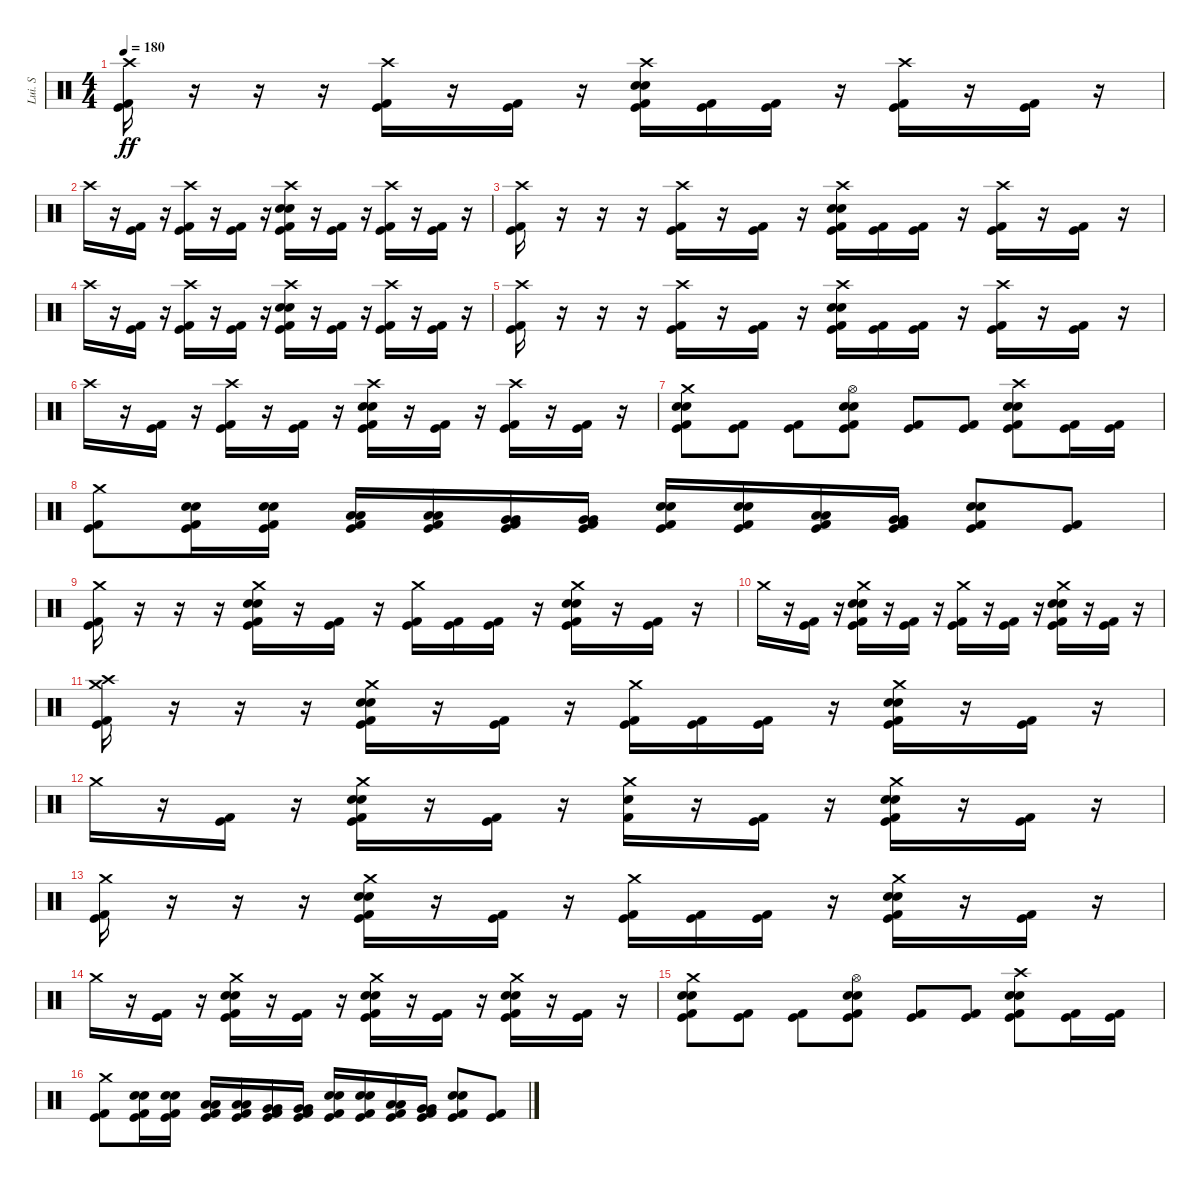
\track ("Lui. S" "Lui. S") {instrument percussion}
\staff {score}
\articulation defaults
\ts (4 4)
\tempo 180
\clef neutral
\ks c
("Crash high (hit)" "Kick (hit)" "Kick (hit) 2").16{dy ff} r.16 r.16 r.16 ("Crash high (hit)" "Kick (hit)" "Kick (hit) 2").16 r.16 ("Kick (hit)" "Kick (hit) 2").16 r.16 ("Crash high (hit)" "Electric Snare (hit)" "Snare (hit) 2" "Kick (hit)" "Kick (hit) 2").16 ("Kick (hit)" "Kick (hit) 2").16 ("Kick (hit)" "Kick (hit) 2").16 r.16 ("Crash high (hit)" "Kick (hit)" "Kick (hit) 2").16 r.16 ("Kick (hit)" "Kick (hit) 2").16 r.16 |
"Crash high (hit)".16 r.16 ("Kick (hit)" "Kick (hit) 2").16 r.16 ("Crash high (hit)" "Kick (hit)" "Kick (hit) 2").16 r.16 ("Kick (hit)" "Kick (hit) 2").16 r.16 ("Crash high (hit)" "Electric Snare (hit)" "Kick (hit)" "Snare (hit) 2" "Kick (hit) 2").16 r.16 ("Kick (hit)" "Kick (hit) 2").16 r.16 ("Crash high (hit)" "Kick (hit)" "Kick (hit) 2").16 r.16 ("Kick (hit)" "Kick (hit) 2").16 r.16 |
("Crash high (hit)" "Kick (hit)" "Kick (hit) 2").16 r.16 r.16 r.16 ("Crash high (hit)" "Kick (hit)" "Kick (hit) 2").16 r.16 ("Kick (hit)" "Kick (hit) 2").16 r.16 ("Crash high (hit)" "Electric Snare (hit)" "Snare (hit) 2" "Kick (hit)" "Kick (hit) 2").16 ("Kick (hit)" "Kick (hit) 2").16 ("Kick (hit)" "Kick (hit) 2").16 r.16 ("Crash high (hit)" "Kick (hit)" "Kick (hit) 2").16 r.16 ("Kick (hit)" "Kick (hit) 2").16 r.16 |
"Crash high (hit)".16 r.16 ("Kick (hit)" "Kick (hit) 2").16 r.16 ("Crash high (hit)" "Kick (hit)" "Kick (hit) 2").16 r.16 ("Kick (hit)" "Kick (hit) 2").16 r.16 ("Crash high (hit)" "Electric Snare (hit)" "Kick (hit)" "Snare (hit) 2" "Kick (hit) 2").16 r.16 ("Kick (hit)" "Kick (hit) 2").16 r.16 ("Crash high (hit)" "Kick (hit)" "Kick (hit) 2").16 r.16 ("Kick (hit)" "Kick (hit) 2").16 r.16 |
("Crash high (hit)" "Kick (hit)" "Kick (hit) 2").16 r.16 r.16 r.16 ("Crash high (hit)" "Kick (hit)" "Kick (hit) 2").16 r.16 ("Kick (hit)" "Kick (hit) 2").16 r.16 ("Crash high (hit)" "Electric Snare (hit)" "Snare (hit) 2" "Kick (hit)" "Kick (hit) 2").16 ("Kick (hit)" "Kick (hit) 2").16 ("Kick (hit)" "Kick (hit) 2").16 r.16 ("Crash high (hit)" "Kick (hit)" "Kick (hit) 2").16 r.16 ("Kick (hit)" "Kick (hit) 2").16 r.16 |
"Crash high (hit)".16 r.16 ("Kick (hit)" "Kick (hit) 2").16 r.16 ("Crash high (hit)" "Kick (hit)" "Kick (hit) 2").16 r.16 ("Kick (hit)" "Kick (hit) 2").16 r.16 ("Crash high (hit)" "Electric Snare (hit)" "Kick (hit)" "Snare (hit) 2" "Kick (hit) 2").16 r.16 ("Kick (hit)" "Kick (hit) 2").16 r.16 ("Crash high (hit)" "Kick (hit)" "Kick (hit) 2").16 r.16 ("Kick (hit)" "Kick (hit) 2").16 r.16 |
("Crash medium (hit)" "Snare (hit) 2" "Electric Snare (hit)" "Kick (hit)" "Kick (hit) 2").8 ("Kick (hit)" "Kick (hit) 2").8 ("Kick (hit)" "Kick (hit) 2").8 ("Snare (hit) 2" "Hi-Hat (open)" "Electric Snare (hit)" "Kick (hit)" "Kick (hit) 2").8 ("Kick (hit)" "Kick (hit) 2").8 ("Kick (hit)" "Kick (hit) 2").8 ("Crash high (hit)" "Snare (hit) 2" "Electric Snare (hit)" "Kick (hit)" "Kick (hit) 2").8 ("Kick (hit)" "Kick (hit) 2").16 ("Kick (hit)" "Kick (hit) 2").16 |
("Crash medium (hit)" "Kick (hit)" "Kick (hit) 2").8 ("Snare (hit) 2" "Electric Snare (hit)" "Kick (hit)" "Kick (hit) 2").16 ("Snare (hit) 2" "Electric Snare (hit)" "Kick (hit)" "Kick (hit) 2").16 ("Low Tom (hit)" "Low Tom (hit)" "Kick (hit)" "Kick (hit) 2").16 ("Low Tom (hit)" "Low Tom (hit)" "Kick (hit)" "Kick (hit) 2").16 ("Very Low Tom (hit)" "Very Low Tom (hit)" "Kick (hit)" "Kick (hit) 2").16 ("Very Low Tom (hit)" "Very Low Tom (hit)" "Kick (hit)" "Kick (hit) 2").16 ("Snare (hit) 2" "Electric Snare (hit)" "Kick (hit)" "Kick (hit) 2").16 ("Snare (hit) 2" "Electric Snare (hit)" "Kick (hit)" "Kick (hit) 2").16 ("Low Tom (hit)" "Low Tom (hit)" "Kick (hit)" "Kick (hit) 2").16 ("Very Low Tom (hit)" "Very Low Tom (hit)" "Kick (hit)" "Kick (hit) 2").16 ("Snare (hit) 2" "Electric Snare (hit)" "Kick (hit)" "Kick (hit) 2").8 ("Kick (hit)" "Kick (hit) 2").8 |
("Crash medium (hit)" "Kick (hit)" "Kick (hit) 2").16 r.16 r.16 r.16 ("Crash medium (hit)" "Electric Snare (hit)" "Snare (hit) 2" "Kick (hit)" "Kick (hit) 2").16 r.16 ("Kick (hit)" "Kick (hit) 2").16 r.16 ("Crash medium (hit)" "Kick (hit)" "Kick (hit) 2").16 ("Kick (hit)" "Kick (hit) 2").16 ("Kick (hit)" "Kick (hit) 2").16 r.16 ("Crash medium (hit)" "Snare (hit) 2" "Electric Snare (hit)" "Kick (hit)" "Kick (hit) 2").16 r.16 ("Kick (hit)" "Kick (hit) 2").16 r.16 |
"Crash medium (hit)".16 r.16 ("Kick (hit)" "Kick (hit) 2").16 r.16 ("Crash medium (hit)" "Electric Snare (hit)" "Snare (hit) 2" "Kick (hit)" "Kick (hit) 2").16 r.16 ("Kick (hit)" "Kick (hit) 2").16 r.16 ("Crash medium (hit)" "Kick (hit)" "Kick (hit) 2").16 r.16 ("Kick (hit)" "Kick (hit) 2").16 r.16 ("Crash medium (hit)" "Electric Snare (hit)" "Snare (hit) 2" "Kick (hit)" "Kick (hit) 2").16 r.16 ("Kick (hit)" "Kick (hit) 2").16 r.16 |
("Crash high (hit)" "Crash medium (hit)" "Kick (hit)" "Kick (hit) 2").16 r.16 r.16 r.16 ("Crash medium (hit)" "Electric Snare (hit)" "Snare (hit) 2" "Kick (hit)" "Kick (hit) 2").16 r.16 ("Kick (hit)" "Kick (hit) 2").16 r.16 ("Crash medium (hit)" "Kick (hit)" "Kick (hit) 2").16 ("Kick (hit)" "Kick (hit) 2").16 ("Kick (hit)" "Kick (hit) 2").16 r.16 ("Crash medium (hit)" "Electric Snare (hit)" "Snare (hit) 2" "Kick (hit)" "Kick (hit) 2").16 r.16 ("Kick (hit)" "Kick (hit) 2").16 r.16 |
"Crash medium (hit)".16 r.16 ("Kick (hit)" "Kick (hit) 2").16 r.16 ("Crash medium (hit)" "Electric Snare (hit)" "Snare (hit) 2" "Kick (hit)" "Kick (hit) 2").16 r.16 ("Kick (hit)" "Kick (hit) 2").16 r.16 ("Crash medium (hit)" "Snare (hit) 2" "Kick (hit) 2").16 r.16 ("Kick (hit)" "Kick (hit) 2").16 r.16 ("Crash medium (hit)" "Electric Snare (hit)" "Snare (hit) 2" "Kick (hit)" "Kick (hit) 2").16 r.16 ("Kick (hit)" "Kick (hit) 2").16 r.16 |
("Crash medium (hit)" "Kick (hit)" "Kick (hit) 2").16 r.16 r.16 r.16 ("Crash medium (hit)" "Electric Snare (hit)" "Snare (hit) 2" "Kick (hit)" "Kick (hit) 2").16 r.16 ("Kick (hit)" "Kick (hit) 2").16 r.16 ("Crash medium (hit)" "Kick (hit)" "Kick (hit) 2").16 ("Kick (hit)" "Kick (hit) 2").16 ("Kick (hit)" "Kick (hit) 2").16 r.16 ("Crash medium (hit)" "Electric Snare (hit)" "Snare (hit) 2" "Kick (hit)" "Kick (hit) 2").16 r.16 ("Kick (hit)" "Kick (hit) 2").16 r.16 |
"Crash medium (hit)".16 r.16 ("Kick (hit)" "Kick (hit) 2").16 r.16 ("Crash medium (hit)" "Electric Snare (hit)" "Snare (hit) 2" "Kick (hit)" "Kick (hit) 2").16 r.16 ("Kick (hit)" "Kick (hit) 2").16 r.16 ("Crash medium (hit)" "Kick (hit)" "Electric Snare (hit)" "Snare (hit) 2" "Kick (hit) 2").16 r.16 ("Kick (hit)" "Kick (hit) 2").16 r.16 ("Crash medium (hit)" "Electric Snare (hit)" "Snare (hit) 2" "Kick (hit)" "Kick (hit) 2").16 r.16 ("Kick (hit)" "Kick (hit) 2").16 r.16 |
("Crash medium (hit)" "Snare (hit) 2" "Electric Snare (hit)" "Kick (hit)" "Kick (hit) 2").8 ("Kick (hit)" "Kick (hit) 2").8 ("Kick (hit)" "Kick (hit) 2").8 ("Snare (hit) 2" "Hi-Hat (open)" "Electric Snare (hit)" "Kick (hit)" "Kick (hit) 2").8 ("Kick (hit)" "Kick (hit) 2").8 ("Kick (hit)" "Kick (hit) 2").8 ("Crash high (hit)" "Snare (hit) 2" "Electric Snare (hit)" "Kick (hit)" "Kick (hit) 2").8 ("Kick (hit)" "Kick (hit) 2").16 ("Kick (hit)" "Kick (hit) 2").16 |
("Crash medium (hit)" "Kick (hit)" "Kick (hit) 2").8 ("Snare (hit) 2" "Electric Snare (hit)" "Kick (hit)" "Kick (hit) 2").16 ("Snare (hit) 2" "Electric Snare (hit)" "Kick (hit)" "Kick (hit) 2").16 ("Low Tom (hit)" "Low Tom (hit)" "Kick (hit)" "Kick (hit) 2").16 ("Low Tom (hit)" "Low Tom (hit)" "Kick (hit)" "Kick (hit) 2").16 ("Very Low Tom (hit)" "Very Low Tom (hit)" "Kick (hit)" "Kick (hit) 2").16 ("Very Low Tom (hit)" "Very Low Tom (hit)" "Kick (hit)" "Kick (hit) 2").16 ("Snare (hit) 2" "Electric Snare (hit)" "Kick (hit)" "Kick (hit) 2").16 ("Snare (hit) 2" "Electric Snare (hit)" "Kick (hit)" "Kick (hit) 2").16 ("Low Tom (hit)" "Low Tom (hit)" "Kick (hit)" "Kick (hit) 2").16 ("Very Low Tom (hit)" "Very Low Tom (hit)" "Kick (hit)" "Kick (hit) 2").16 ("Snare (hit) 2" "Electric Snare (hit)" "Kick (hit)" "Kick (hit) 2").8 ("Kick (hit)" "Kick (hit) 2").8
